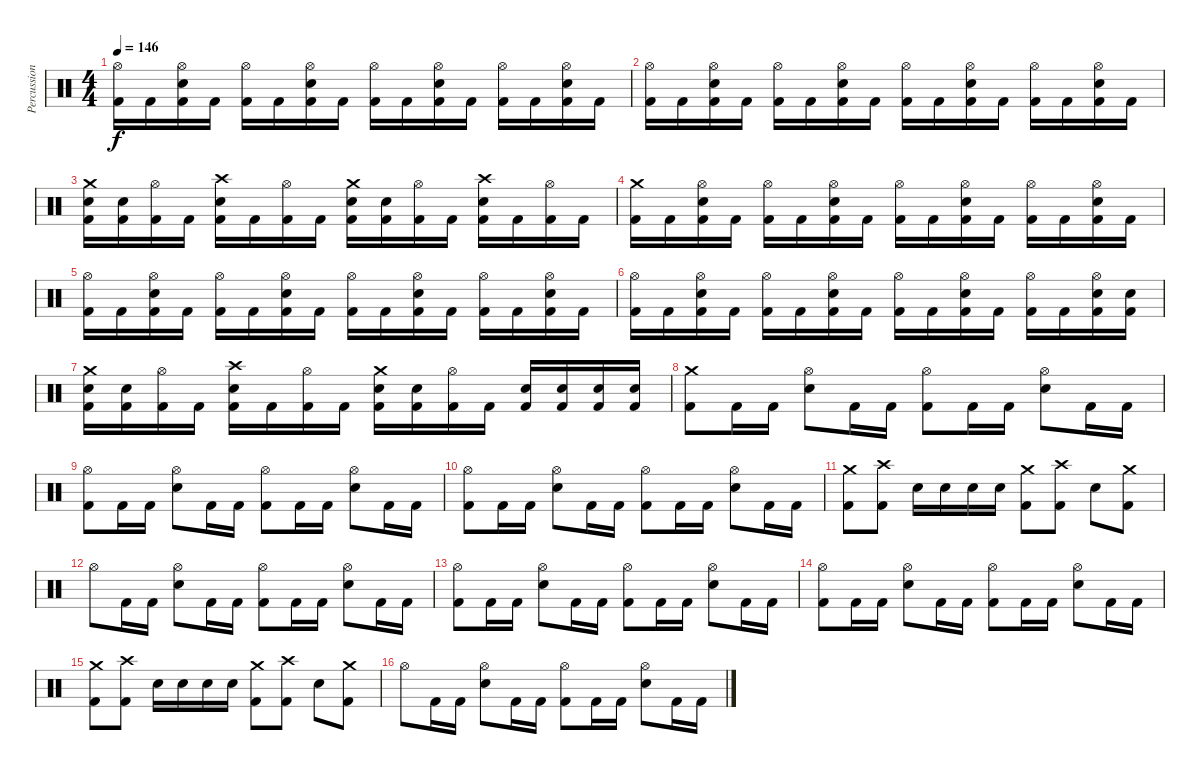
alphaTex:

\track ("Percussion" "Percussion") {instrument percussion}
\staff {score}
\articulation defaults
\ts (4 4)
\tempo 146
\clef neutral
\ks c
("Kick (hit) 2" "Hi-Hat (open)").16{dy f} "Kick (hit) 2".16 ("Kick (hit) 2" "Electric Snare (hit)" "Hi-Hat (open)").16 "Kick (hit) 2".16 ("Kick (hit) 2" "Hi-Hat (open)").16 "Kick (hit) 2".16 ("Kick (hit) 2" "Electric Snare (hit)" "Hi-Hat (open)").16 "Kick (hit) 2".16 ("Kick (hit) 2" "Hi-Hat (open)").16 "Kick (hit) 2".16 ("Kick (hit) 2" "Electric Snare (hit)" "Hi-Hat (open)").16 "Kick (hit) 2".16 ("Kick (hit) 2" "Hi-Hat (open)").16 "Kick (hit) 2".16 ("Kick (hit) 2" "Electric Snare (hit)" "Hi-Hat (open)").16 "Kick (hit) 2".16 |
("Kick (hit) 2" "Hi-Hat (open)").16 "Kick (hit) 2".16 ("Kick (hit) 2" "Electric Snare (hit)" "Hi-Hat (open)").16 "Kick (hit) 2".16 ("Kick (hit) 2" "Hi-Hat (open)").16 "Kick (hit) 2".16 ("Kick (hit) 2" "Electric Snare (hit)" "Hi-Hat (open)").16 "Kick (hit) 2".16 ("Kick (hit) 2" "Hi-Hat (open)").16 "Kick (hit) 2".16 ("Kick (hit) 2" "Electric Snare (hit)" "Hi-Hat (open)").16 "Kick (hit) 2".16 ("Kick (hit) 2" "Hi-Hat (open)").16 "Kick (hit) 2".16 ("Kick (hit) 2" "Electric Snare (hit)" "Hi-Hat (open)").16 "Kick (hit) 2".16 |
("Kick (hit) 2" "Electric Snare (hit)" "Crash medium (hit)").16 ("Kick (hit) 2" "Electric Snare (hit)").16 ("Kick (hit) 2" "Hi-Hat (open)").16 "Kick (hit) 2".16 ("Kick (hit) 2" "Electric Snare (hit)" "Crash high (hit)").16 "Kick (hit) 2".16 ("Kick (hit) 2" "Hi-Hat (open)").16 "Kick (hit) 2".16 ("Kick (hit) 2" "Electric Snare (hit)" "Crash medium (hit)").16 ("Kick (hit) 2" "Electric Snare (hit)").16 ("Kick (hit) 2" "Hi-Hat (open)").16 "Kick (hit) 2".16 ("Kick (hit) 2" "Electric Snare (hit)" "Crash high (hit)").16 "Kick (hit) 2".16 ("Kick (hit) 2" "Hi-Hat (open)").16 "Kick (hit) 2".16 |
("Kick (hit) 2" "Crash medium (hit)").16 "Kick (hit) 2".16 ("Kick (hit) 2" "Electric Snare (hit)" "Hi-Hat (open)").16 "Kick (hit) 2".16 ("Kick (hit) 2" "Hi-Hat (open)").16 "Kick (hit) 2".16 ("Kick (hit) 2" "Electric Snare (hit)" "Hi-Hat (open)").16 "Kick (hit) 2".16 ("Kick (hit) 2" "Hi-Hat (open)").16 "Kick (hit) 2".16 ("Kick (hit) 2" "Electric Snare (hit)" "Hi-Hat (open)").16 "Kick (hit) 2".16 ("Kick (hit) 2" "Hi-Hat (open)").16 "Kick (hit) 2".16 ("Kick (hit) 2" "Electric Snare (hit)" "Hi-Hat (open)").16 "Kick (hit) 2".16 |
("Kick (hit) 2" "Hi-Hat (open)").16 "Kick (hit) 2".16 ("Kick (hit) 2" "Electric Snare (hit)" "Hi-Hat (open)").16 "Kick (hit) 2".16 ("Kick (hit) 2" "Hi-Hat (open)").16 "Kick (hit) 2".16 ("Kick (hit) 2" "Electric Snare (hit)" "Hi-Hat (open)").16 "Kick (hit) 2".16 ("Kick (hit) 2" "Hi-Hat (open)").16 "Kick (hit) 2".16 ("Kick (hit) 2" "Electric Snare (hit)" "Hi-Hat (open)").16 "Kick (hit) 2".16 ("Kick (hit) 2" "Hi-Hat (open)").16 "Kick (hit) 2".16 ("Kick (hit) 2" "Electric Snare (hit)" "Hi-Hat (open)").16 "Kick (hit) 2".16 |
("Kick (hit) 2" "Hi-Hat (open)").16 "Kick (hit) 2".16 ("Kick (hit) 2" "Electric Snare (hit)" "Hi-Hat (open)").16 "Kick (hit) 2".16 ("Kick (hit) 2" "Hi-Hat (open)").16 "Kick (hit) 2".16 ("Kick (hit) 2" "Electric Snare (hit)" "Hi-Hat (open)").16 "Kick (hit) 2".16 ("Kick (hit) 2" "Hi-Hat (open)").16 "Kick (hit) 2".16 ("Kick (hit) 2" "Electric Snare (hit)" "Hi-Hat (open)").16 "Kick (hit) 2".16 ("Kick (hit) 2" "Hi-Hat (open)").16 "Kick (hit) 2".16 ("Kick (hit) 2" "Electric Snare (hit)" "Hi-Hat (open)").16 ("Kick (hit) 2" "Electric Snare (hit)").16 |
("Kick (hit) 2" "Electric Snare (hit)" "Crash medium (hit)").16 ("Kick (hit) 2" "Electric Snare (hit)").16 ("Kick (hit) 2" "Hi-Hat (open)").16 "Kick (hit) 2".16 ("Kick (hit) 2" "Electric Snare (hit)" "Crash high (hit)").16 "Kick (hit) 2".16 ("Kick (hit) 2" "Hi-Hat (open)").16 "Kick (hit) 2".16 ("Kick (hit) 2" "Electric Snare (hit)" "Crash medium (hit)").16 ("Kick (hit) 2" "Electric Snare (hit)").16 ("Kick (hit) 2" "Hi-Hat (open)").16 "Kick (hit) 2".16 ("Kick (hit) 2" "Electric Snare (hit)").16 ("Kick (hit) 2" "Electric Snare (hit)").16 ("Kick (hit) 2" "Electric Snare (hit)").16 ("Kick (hit) 2" "Electric Snare (hit)").16 |
("Kick (hit) 2" "Crash medium (hit)").8 "Kick (hit) 2".16 "Kick (hit) 2".16 ("Electric Snare (hit)" "Hi-Hat (open)").8 "Kick (hit) 2".16 "Kick (hit) 2".16 ("Kick (hit) 2" "Hi-Hat (open)").8 "Kick (hit) 2".16 "Kick (hit) 2".16 ("Electric Snare (hit)" "Hi-Hat (open)").8 "Kick (hit) 2".16 "Kick (hit) 2".16 |
("Kick (hit) 2" "Hi-Hat (open)").8 "Kick (hit) 2".16 "Kick (hit) 2".16 ("Electric Snare (hit)" "Hi-Hat (open)").8 "Kick (hit) 2".16 "Kick (hit) 2".16 ("Kick (hit) 2" "Hi-Hat (open)").8 "Kick (hit) 2".16 "Kick (hit) 2".16 ("Electric Snare (hit)" "Hi-Hat (open)").8 "Kick (hit) 2".16 "Kick (hit) 2".16 |
("Kick (hit) 2" "Hi-Hat (open)").8 "Kick (hit) 2".16 "Kick (hit) 2".16 ("Electric Snare (hit)" "Hi-Hat (open)").8 "Kick (hit) 2".16 "Kick (hit) 2".16 ("Kick (hit) 2" "Hi-Hat (open)").8 "Kick (hit) 2".16 "Kick (hit) 2".16 ("Electric Snare (hit)" "Hi-Hat (open)").8 "Kick (hit) 2".16 "Kick (hit) 2".16 |
("Kick (hit) 2" "Crash medium (hit)").8 ("Kick (hit) 2" "Crash high (hit)").8 "Electric Snare (hit)".16 "Electric Snare (hit)".16 "Electric Snare (hit)".16 "Electric Snare (hit)".16 ("Kick (hit) 2" "Crash medium (hit)").8 ("Kick (hit) 2" "Crash high (hit)").8 "Electric Snare (hit)".8 ("Kick (hit) 2" "Crash medium (hit)").8 |
"Hi-Hat (open)".8 "Kick (hit) 2".16 "Kick (hit) 2".16 ("Electric Snare (hit)" "Hi-Hat (open)").8 "Kick (hit) 2".16 "Kick (hit) 2".16 ("Kick (hit) 2" "Hi-Hat (open)").8 "Kick (hit) 2".16 "Kick (hit) 2".16 ("Electric Snare (hit)" "Hi-Hat (open)").8 "Kick (hit) 2".16 "Kick (hit) 2".16 |
("Kick (hit) 2" "Hi-Hat (open)").8 "Kick (hit) 2".16 "Kick (hit) 2".16 ("Electric Snare (hit)" "Hi-Hat (open)").8 "Kick (hit) 2".16 "Kick (hit) 2".16 ("Kick (hit) 2" "Hi-Hat (open)").8 "Kick (hit) 2".16 "Kick (hit) 2".16 ("Electric Snare (hit)" "Hi-Hat (open)").8 "Kick (hit) 2".16 "Kick (hit) 2".16 |
("Kick (hit) 2" "Hi-Hat (open)").8 "Kick (hit) 2".16 "Kick (hit) 2".16 ("Electric Snare (hit)" "Hi-Hat (open)").8 "Kick (hit) 2".16 "Kick (hit) 2".16 ("Kick (hit) 2" "Hi-Hat (open)").8 "Kick (hit) 2".16 "Kick (hit) 2".16 ("Electric Snare (hit)" "Hi-Hat (open)").8 "Kick (hit) 2".16 "Kick (hit) 2".16 |
("Kick (hit) 2" "Crash medium (hit)").8 ("Kick (hit) 2" "Crash high (hit)").8 "Electric Snare (hit)".16 "Electric Snare (hit)".16 "Electric Snare (hit)".16 "Electric Snare (hit)".16 ("Kick (hit) 2" "Crash medium (hit)").8 ("Kick (hit) 2" "Crash high (hit)").8 "Electric Snare (hit)".8 ("Kick (hit) 2" "Crash medium (hit)").8 |
"Hi-Hat (open)".8 "Kick (hit) 2".16 "Kick (hit) 2".16 ("Electric Snare (hit)" "Hi-Hat (open)").8 "Kick (hit) 2".16 "Kick (hit) 2".16 ("Kick (hit) 2" "Hi-Hat (open)").8 "Kick (hit) 2".16 "Kick (hit) 2".16 ("Electric Snare (hit)" "Hi-Hat (open)").8 "Kick (hit) 2".16 "Kick (hit) 2".16
